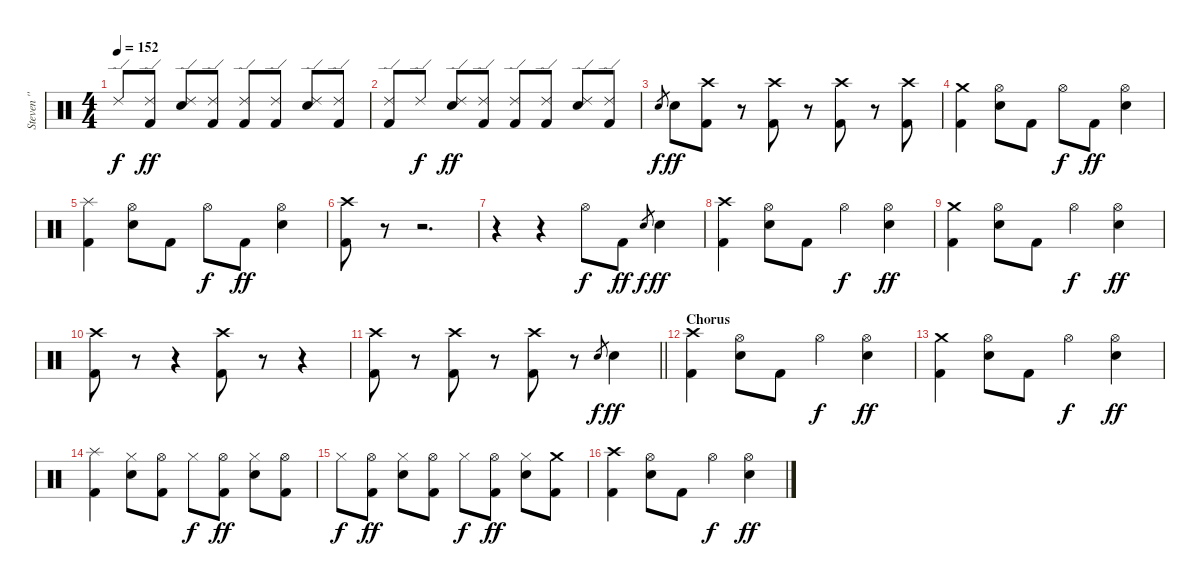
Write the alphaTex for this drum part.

\track ("Steven '' Popcorn '' Adler" "Steven '' ") {instrument percussion}
\staff {score}
\articulation defaults
\ts (4 4)
\tempo 152
\clef neutral
\ks c "Ride (edge) 2".8{dy f}
("Ride (edge) 2" "Kick (hit) 2").8{dy ff} ("Ride (edge) 2" "Snare (hit) 2").8 ("Ride (edge) 2" "Kick (hit) 2").8 ("Ride (edge) 2" "Kick (hit) 2").8 ("Ride (edge) 2" "Kick (hit) 2").8 ("Ride (edge) 2" "Snare (hit) 2").8 ("Ride (edge) 2" "Kick (hit) 2").8 |
("Ride (edge) 2" "Kick (hit) 2").8 "Ride (edge) 2".8{dy f} ("Ride (edge) 2" "Snare (hit) 2").8{dy ff} ("Ride (edge) 2" "Kick (hit) 2").8 ("Ride (edge) 2" "Kick (hit) 2").8 ("Ride (edge) 2" "Kick (hit) 2").8 ("Ride (edge) 2" "Snare (hit) 2").8 ("Ride (edge) 2" "Kick (hit) 2").8 |
"Snare (hit) 2".8{gr dy f} "Snare (hit) 2".8{dy ff} ("Crash high (hit)" "Kick (hit) 2").8 r.8 ("Crash high (hit)" "Kick (hit) 2").8 r.8 ("Crash high (hit)" "Kick (hit) 2").8 r.8 ("Crash high (hit)" "Kick (hit) 2").8 |
("Crash medium (hit)" "Kick (hit) 2").4 ("Hi-Hat (open)" "Snare (hit) 2").8 "Kick (hit) 2".8 "Hi-Hat (open)".8{dy f} "Kick (hit) 2".8{dy ff} ("Hi-Hat (open)" "Snare (hit) 2").4 |
("Splash (hit)" "Kick (hit) 2").4 ("Hi-Hat (open)" "Snare (hit) 2").8 "Kick (hit) 2".8 "Hi-Hat (open)".8{dy f} "Kick (hit) 2".8{dy ff} ("Hi-Hat (open)" "Snare (hit) 2").4 |
("Crash high (hit)" "Kick (hit) 2").8 r.8 r.2{d} |
r.4 r.4 "Hi-Hat (open)".8{dy f} "Kick (hit) 2".8{dy ff} "Snare (hit) 2".8{gr dy f} "Snare (hit) 2".4{dy ff} |
("Crash high (hit)" "Kick (hit) 2").4 ("Hi-Hat (open)" "Snare (hit) 2").8 "Kick (hit) 2".8 "Hi-Hat (open)".4{dy f} ("Hi-Hat (open)" "Snare (hit) 2").4{dy ff} |
("Crash medium (hit)" "Kick (hit) 2").4 ("Hi-Hat (open)" "Snare (hit) 2").8 "Kick (hit) 2".8 "Hi-Hat (open)".4{dy f} ("Hi-Hat (open)" "Snare (hit) 2").4{dy ff} |
("Crash high (hit)" "Kick (hit) 2").8 r.8 r.4 ("Crash high (hit)" "Kick (hit) 2").8 r.8 r.4 |
\barLineRight lightlight
("Crash high (hit)" "Kick (hit) 2").8 r.8 ("Crash high (hit)" "Kick (hit) 2").8 r.8 ("Crash high (hit)" "Kick (hit) 2").8 r.8 "Snare (hit) 2".8{gr dy f} "Snare (hit) 2".4{dy ff} |
\section ("" "Chorus")
("Crash high (hit)" "Kick (hit) 2").4 ("Hi-Hat (open)" "Snare (hit) 2").8 "Kick (hit) 2".8 "Hi-Hat (open)".4{dy f} ("Hi-Hat (open)" "Snare (hit) 2").4{dy ff} |
("Crash medium (hit)" "Kick (hit) 2").4 ("Hi-Hat (open)" "Snare (hit) 2").8 "Kick (hit) 2".8 "Hi-Hat (open)".4{dy f} ("Hi-Hat (open)" "Snare (hit) 2").4{dy ff} |
("Splash (hit)" "Kick (hit) 2").4 ("Hi-Hat (closed)" "Snare (hit) 2").8 ("Hi-Hat (open)" "Kick (hit) 2").8 "Hi-Hat (closed)".8{dy f} ("Hi-Hat (open)" "Kick (hit) 2").8{dy ff} ("Hi-Hat (closed)" "Snare (hit) 2").8 ("Hi-Hat (open)" "Kick (hit) 2").8 |
"Hi-Hat (closed)".8{dy f} ("Hi-Hat (open)" "Kick (hit) 2").8{dy ff} ("Hi-Hat (closed)" "Snare (hit) 2").8 ("Hi-Hat (open)" "Kick (hit) 2").8 "Hi-Hat (closed)".8{dy f} ("Hi-Hat (open)" "Kick (hit) 2").8{dy ff} ("Hi-Hat (closed)" "Snare (hit) 2").8 ("Crash medium (hit)" "Kick (hit) 2").8 |
("Crash high (hit)" "Kick (hit) 2").4 ("Hi-Hat (open)" "Snare (hit) 2").8 "Kick (hit) 2".8 "Hi-Hat (open)".4{dy f} ("Hi-Hat (open)" "Snare (hit) 2").4{dy ff}
